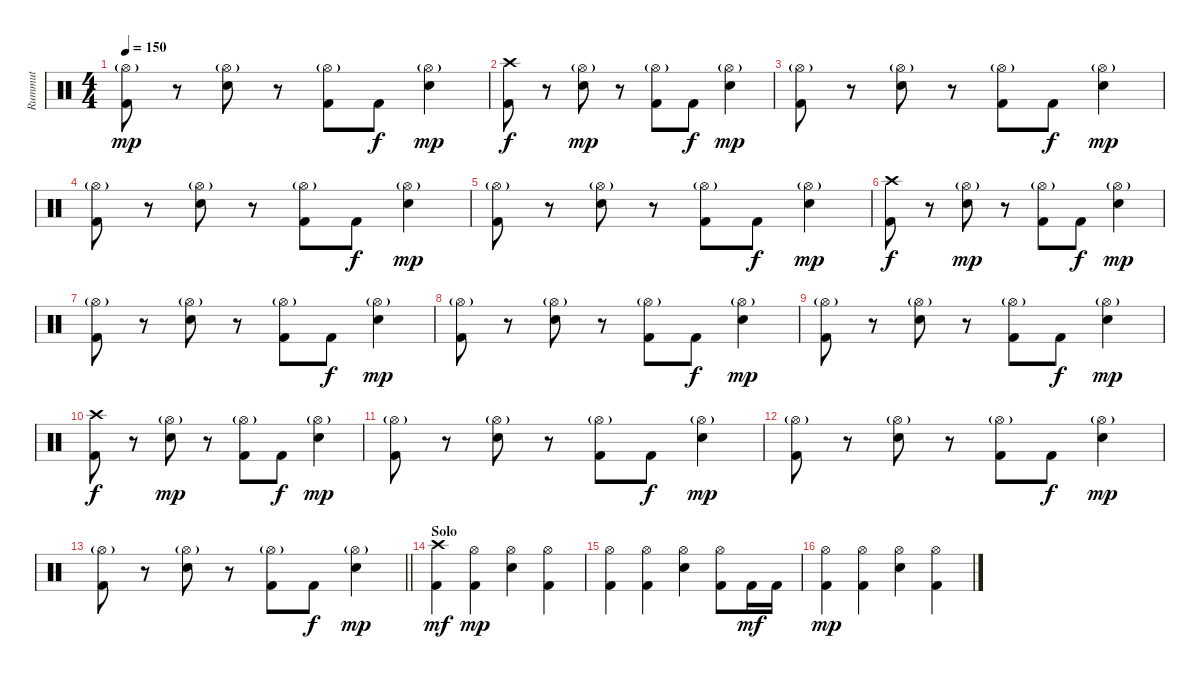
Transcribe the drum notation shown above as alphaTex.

\track ("Rummut" "Rummut") {instrument percussion bank 69}
\staff {score}
\articulation defaults
\ts (4 4)
\tempo 150
\clef neutral
\ks c
("Hi-Hat (open)"{g} "Kick (hit) 2").8{dy mp} r.8 ("Hi-Hat (open)"{g} "Snare (hit) 2").8 r.8 ("Hi-Hat (open)"{g} "Kick (hit) 2").8 "Kick (hit) 2".8{dy f} ("Hi-Hat (open)"{g} "Snare (hit) 2").4{dy mp} |
("Crash high (hit)" "Kick (hit) 2").8{dy f} r.8 ("Hi-Hat (open)"{g} "Snare (hit) 2").8{dy mp} r.8 ("Hi-Hat (open)"{g} "Kick (hit) 2").8 "Kick (hit) 2".8{dy f} ("Hi-Hat (open)"{g} "Snare (hit) 2").4{dy mp} |
("Hi-Hat (open)"{g} "Kick (hit) 2").8 r.8 ("Hi-Hat (open)"{g} "Snare (hit) 2").8 r.8 ("Hi-Hat (open)"{g} "Kick (hit) 2").8 "Kick (hit) 2".8{dy f} ("Hi-Hat (open)"{g} "Snare (hit) 2").4{dy mp} |
("Hi-Hat (open)"{g} "Kick (hit) 2").8 r.8 ("Hi-Hat (open)"{g} "Snare (hit) 2").8 r.8 ("Hi-Hat (open)"{g} "Kick (hit) 2").8 "Kick (hit) 2".8{dy f} ("Hi-Hat (open)"{g} "Snare (hit) 2").4{dy mp} |
("Hi-Hat (open)"{g} "Kick (hit) 2").8 r.8 ("Hi-Hat (open)"{g} "Snare (hit) 2").8 r.8 ("Hi-Hat (open)"{g} "Kick (hit) 2").8 "Kick (hit) 2".8{dy f} ("Hi-Hat (open)"{g} "Snare (hit) 2").4{dy mp} |
("Crash high (hit)" "Kick (hit) 2").8{dy f} r.8 ("Hi-Hat (open)"{g} "Snare (hit) 2").8{dy mp} r.8 ("Hi-Hat (open)"{g} "Kick (hit) 2").8 "Kick (hit) 2".8{dy f} ("Hi-Hat (open)"{g} "Snare (hit) 2").4{dy mp} |
("Hi-Hat (open)"{g} "Kick (hit) 2").8 r.8 ("Hi-Hat (open)"{g} "Snare (hit) 2").8 r.8 ("Hi-Hat (open)"{g} "Kick (hit) 2").8 "Kick (hit) 2".8{dy f} ("Hi-Hat (open)"{g} "Snare (hit) 2").4{dy mp} |
("Hi-Hat (open)"{g} "Kick (hit) 2").8 r.8 ("Hi-Hat (open)"{g} "Snare (hit) 2").8 r.8 ("Hi-Hat (open)"{g} "Kick (hit) 2").8 "Kick (hit) 2".8{dy f} ("Hi-Hat (open)"{g} "Snare (hit) 2").4{dy mp} |
("Hi-Hat (open)"{g} "Kick (hit) 2").8 r.8 ("Hi-Hat (open)"{g} "Snare (hit) 2").8 r.8 ("Hi-Hat (open)"{g} "Kick (hit) 2").8 "Kick (hit) 2".8{dy f} ("Hi-Hat (open)"{g} "Snare (hit) 2").4{dy mp} |
("Crash high (hit)" "Kick (hit) 2").8{dy f} r.8 ("Hi-Hat (open)"{g} "Snare (hit) 2").8{dy mp} r.8 ("Hi-Hat (open)"{g} "Kick (hit) 2").8 "Kick (hit) 2".8{dy f} ("Hi-Hat (open)"{g} "Snare (hit) 2").4{dy mp} |
("Hi-Hat (open)"{g} "Kick (hit) 2").8 r.8 ("Hi-Hat (open)"{g} "Snare (hit) 2").8 r.8 ("Hi-Hat (open)"{g} "Kick (hit) 2").8 "Kick (hit) 2".8{dy f} ("Hi-Hat (open)"{g} "Snare (hit) 2").4{dy mp} |
("Hi-Hat (open)"{g} "Kick (hit) 2").8 r.8 ("Hi-Hat (open)"{g} "Snare (hit) 2").8 r.8 ("Hi-Hat (open)"{g} "Kick (hit) 2").8 "Kick (hit) 2".8{dy f} ("Hi-Hat (open)"{g} "Snare (hit) 2").4{dy mp} |
\barLineRight lightlight
("Hi-Hat (open)"{g} "Kick (hit) 2").8 r.8 ("Hi-Hat (open)"{g} "Snare (hit) 2").8 r.8 ("Hi-Hat (open)"{g} "Kick (hit) 2").8 "Kick (hit) 2".8{dy f} ("Hi-Hat (open)"{g} "Snare (hit) 2").4{dy mp} |
\section ("" "Solo")
("Crash high (hit)" "Kick (hit) 2").4{dy mf} ("Hi-Hat (open)" "Kick (hit) 2").4{dy mp} ("Hi-Hat (open)" "Snare (hit) 2").4 ("Hi-Hat (open)" "Kick (hit) 2").4 |
("Hi-Hat (open)" "Kick (hit) 2").4 ("Hi-Hat (open)" "Kick (hit) 2").4 ("Hi-Hat (open)" "Snare (hit) 2").4 ("Hi-Hat (open)" "Kick (hit) 2").8 "Kick (hit) 2".16{dy mf} "Kick (hit) 2".16 |
("Hi-Hat (open)" "Kick (hit) 2").4{dy mp} ("Hi-Hat (open)" "Kick (hit) 2").4 ("Hi-Hat (open)" "Snare (hit) 2").4 ("Hi-Hat (open)" "Kick (hit) 2").4
